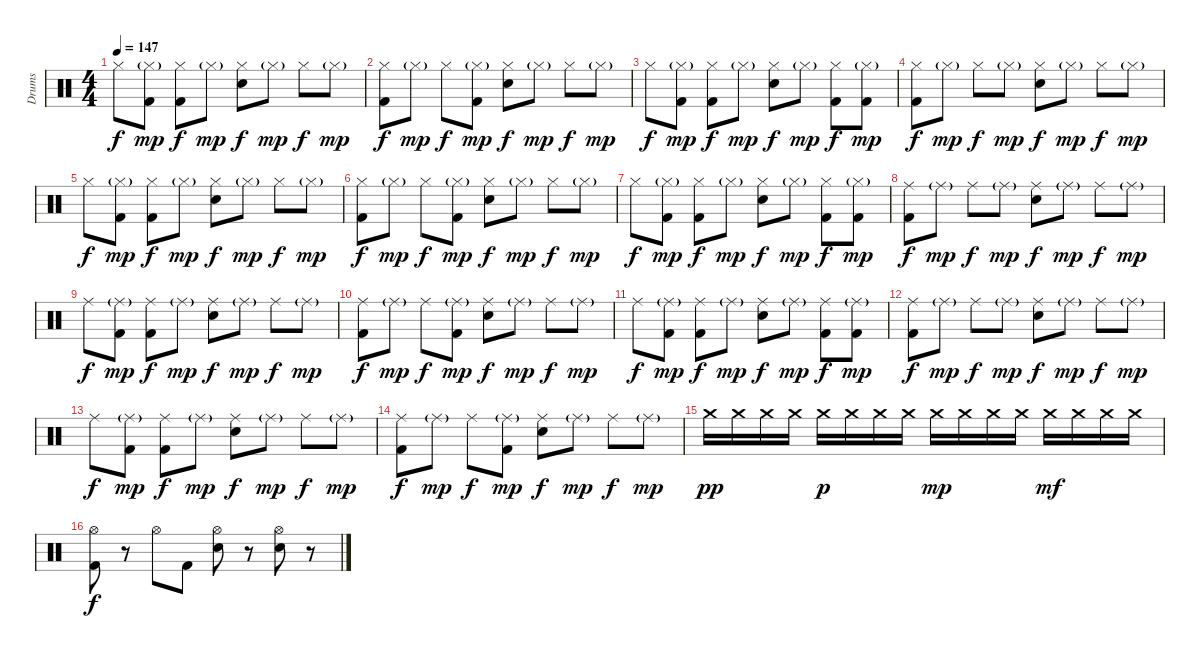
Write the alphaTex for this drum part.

\track ("Drums" "Drums") {instrument percussion}
\staff {score}
\articulation defaults
\ts (4 4)
\tempo 147
\clef neutral
\ks c "Hi-Hat (closed)".8{dy f}
("Hi-Hat (closed)"{g} "Kick (hit) 2").8{dy mp} ("Hi-Hat (closed)" "Kick (hit) 2").8{dy f} "Hi-Hat (closed)"{g}.8{dy mp} ("Hi-Hat (closed)" "Snare (hit) 2").8{dy f} "Hi-Hat (closed)"{g}.8{dy mp} "Hi-Hat (closed)".8{dy f} "Hi-Hat (closed)"{g}.8{dy mp} |
("Hi-Hat (closed)" "Kick (hit) 2").8{dy f} "Hi-Hat (closed)"{g}.8{dy mp} "Hi-Hat (closed)".8{dy f} ("Hi-Hat (closed)"{g} "Kick (hit) 2").8{dy mp} ("Hi-Hat (closed)" "Snare (hit) 2").8{dy f} "Hi-Hat (closed)"{g}.8{dy mp} "Hi-Hat (closed)".8{dy f} "Hi-Hat (closed)"{g}.8{dy mp} |
"Hi-Hat (closed)".8{dy f} ("Hi-Hat (closed)"{g} "Kick (hit) 2").8{dy mp} ("Hi-Hat (closed)" "Kick (hit) 2").8{dy f} "Hi-Hat (closed)"{g}.8{dy mp} ("Hi-Hat (closed)" "Snare (hit) 2").8{dy f} "Hi-Hat (closed)"{g}.8{dy mp} ("Hi-Hat (closed)" "Kick (hit) 2").8{dy f} ("Hi-Hat (closed)"{g} "Kick (hit) 2").8{dy mp} |
("Hi-Hat (closed)" "Kick (hit) 2").8{dy f} "Hi-Hat (closed)"{g}.8{dy mp} "Hi-Hat (closed)".8{dy f} "Hi-Hat (closed)"{g}.8{dy mp} ("Hi-Hat (closed)" "Snare (hit) 2").8{dy f} "Hi-Hat (closed)"{g}.8{dy mp} "Hi-Hat (closed)".8{dy f} "Hi-Hat (closed)"{g}.8{dy mp} |
"Hi-Hat (closed)".8{dy f} ("Hi-Hat (closed)"{g} "Kick (hit) 2").8{dy mp} ("Hi-Hat (closed)" "Kick (hit) 2").8{dy f} "Hi-Hat (closed)"{g}.8{dy mp} ("Hi-Hat (closed)" "Snare (hit) 2").8{dy f} "Hi-Hat (closed)"{g}.8{dy mp} "Hi-Hat (closed)".8{dy f} "Hi-Hat (closed)"{g}.8{dy mp} |
("Hi-Hat (closed)" "Kick (hit) 2").8{dy f} "Hi-Hat (closed)"{g}.8{dy mp} "Hi-Hat (closed)".8{dy f} ("Hi-Hat (closed)"{g} "Kick (hit) 2").8{dy mp} ("Hi-Hat (closed)" "Snare (hit) 2").8{dy f} "Hi-Hat (closed)"{g}.8{dy mp} "Hi-Hat (closed)".8{dy f} "Hi-Hat (closed)"{g}.8{dy mp} |
"Hi-Hat (closed)".8{dy f} ("Hi-Hat (closed)"{g} "Kick (hit) 2").8{dy mp} ("Hi-Hat (closed)" "Kick (hit) 2").8{dy f} "Hi-Hat (closed)"{g}.8{dy mp} ("Hi-Hat (closed)" "Snare (hit) 2").8{dy f} "Hi-Hat (closed)"{g}.8{dy mp} ("Hi-Hat (closed)" "Kick (hit) 2").8{dy f} ("Hi-Hat (closed)"{g} "Kick (hit) 2").8{dy mp} |
("Ride (middle)" "Kick (hit) 2").8{dy f} "Ride (middle)"{g}.8{dy mp} "Ride (middle)".8{dy f} "Ride (middle)"{g}.8{dy mp} ("Ride (middle)" "Snare (hit) 2").8{dy f} "Ride (middle)"{g}.8{dy mp} "Ride (middle)".8{dy f} "Ride (middle)"{g}.8{dy mp} |
"Ride (middle)".8{dy f} ("Ride (middle)"{g} "Kick (hit) 2").8{dy mp} ("Ride (middle)" "Kick (hit) 2").8{dy f} "Ride (middle)"{g}.8{dy mp} ("Ride (middle)" "Snare (hit) 2").8{dy f} "Ride (middle)"{g}.8{dy mp} "Ride (middle)".8{dy f} "Ride (middle)"{g}.8{dy mp} |
("Ride (middle)" "Kick (hit) 2").8{dy f} "Ride (middle)"{g}.8{dy mp} "Ride (middle)".8{dy f} ("Ride (middle)"{g} "Kick (hit) 2").8{dy mp} ("Ride (middle)" "Snare (hit) 2").8{dy f} "Ride (middle)"{g}.8{dy mp} "Ride (middle)".8{dy f} "Ride (middle)"{g}.8{dy mp} |
"Ride (middle)".8{dy f} ("Ride (middle)"{g} "Kick (hit) 2").8{dy mp} ("Ride (middle)" "Kick (hit) 2").8{dy f} "Ride (middle)"{g}.8{dy mp} ("Ride (middle)" "Snare (hit) 2").8{dy f} "Ride (middle)"{g}.8{dy mp} ("Ride (middle)" "Kick (hit) 2").8{dy f} ("Ride (middle)"{g} "Kick (hit) 2").8{dy mp} |
("Ride (middle)" "Kick (hit) 2").8{dy f} "Ride (middle)"{g}.8{dy mp} "Ride (middle)".8{dy f} "Ride (middle)"{g}.8{dy mp} ("Ride (middle)" "Snare (hit) 2").8{dy f} "Ride (middle)"{g}.8{dy mp} "Ride (middle)".8{dy f} "Ride (middle)"{g}.8{dy mp} |
"Ride (middle)".8{dy f} ("Ride (middle)"{g} "Kick (hit) 2").8{dy mp} ("Ride (middle)" "Kick (hit) 2").8{dy f} "Ride (middle)"{g}.8{dy mp} ("Ride (middle)" "Snare (hit) 2").8{dy f} "Ride (middle)"{g}.8{dy mp} "Ride (middle)".8{dy f} "Ride (middle)"{g}.8{dy mp} |
("Ride (middle)" "Kick (hit) 2").8{dy f} "Ride (middle)"{g}.8{dy mp} "Ride (middle)".8{dy f} ("Ride (middle)"{g} "Kick (hit) 2").8{dy mp} ("Ride (middle)" "Snare (hit) 2").8{dy f} "Ride (middle)"{g}.8{dy mp} "Ride (middle)".8{dy f} "Ride (middle)"{g}.8{dy mp} |
"Crash medium (hit)".16{dy pp} "Crash medium (hit)".16 "Crash medium (hit)".16 "Crash medium (hit)".16 "Crash medium (hit)".16{dy p} "Crash medium (hit)".16 "Crash medium (hit)".16 "Crash medium (hit)".16 "Crash medium (hit)".16{dy mp} "Crash medium (hit)".16 "Crash medium (hit)".16 "Crash medium (hit)".16 "Crash medium (hit)".16{dy mf} "Crash medium (hit)".16 "Crash medium (hit)".16 "Crash medium (hit)".16 |
("Hi-Hat (open)" "Kick (hit) 2").8{dy f} r.8 "Hi-Hat (open)".8 "Kick (hit) 2".8 ("Hi-Hat (open)" "Snare (hit) 2").8 r.8 ("Hi-Hat (open)" "Snare (hit) 2").8 r.8
